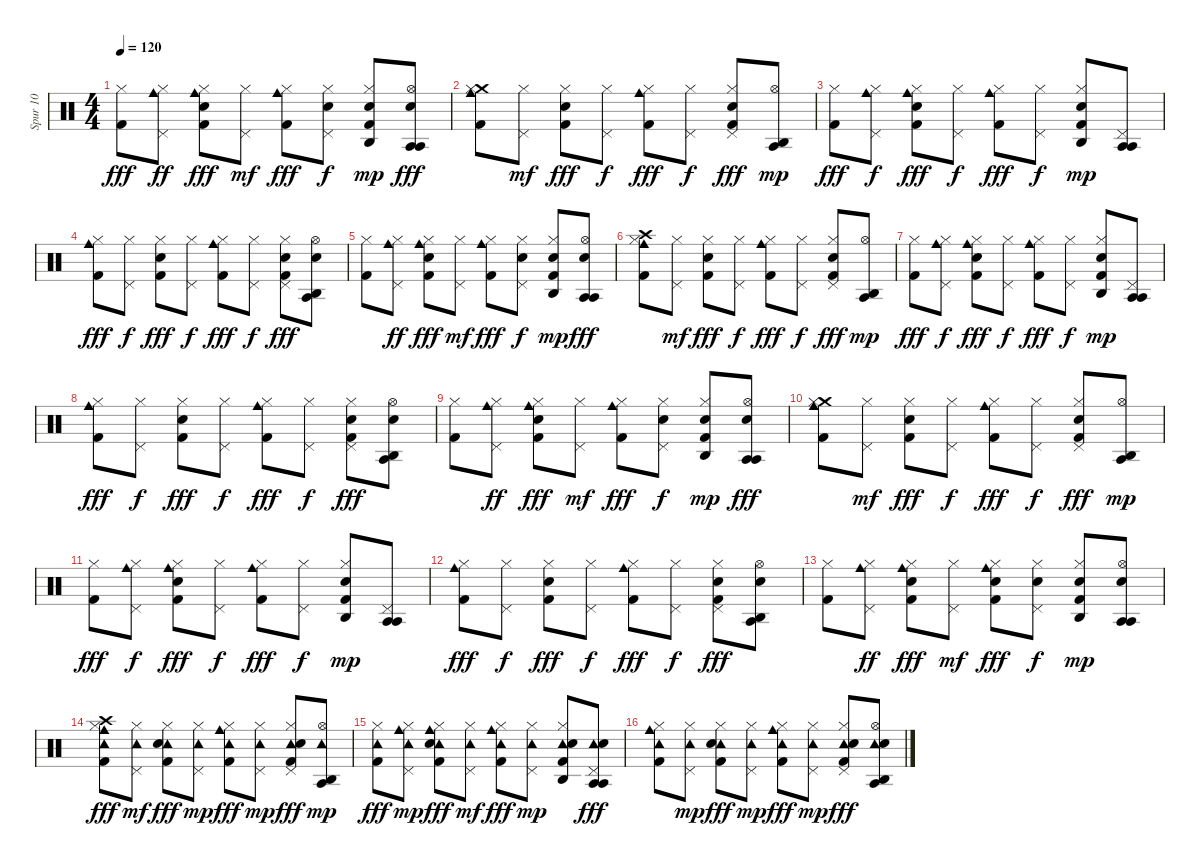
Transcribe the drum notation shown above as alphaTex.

\track ("Spur 10" "Spur 10") {instrument percussion}
\staff {score}
\articulation defaults
\ts (4 4)
\tempo 120
\clef neutral
\ks c
("Kick (hit) 2" "Hi-Hat (closed)").8{dy fff} ("Cowbell medium (hit)" "Hi-Hat (closed)" "Pedal Hi-Hat (hit)").8{dy ff} ("Electric Snare (hit)" "Kick (hit) 2" "Hi-Hat (closed)" "Cowbell medium (hit)").8{dy fff} ("Hi-Hat (closed)" "Pedal Hi-Hat (hit)").8{dy mf} ("Cowbell medium (hit)" "Hi-Hat (closed)" "Kick (hit) 2").8{dy fff} ("Hi-Hat (closed)" "Pedal Hi-Hat (hit)" "Electric Snare (hit)").8{dy f} ("Hi-Hat (closed)" "Kick (hit) 2" "Electric Snare (hit)" "Agogo high (hit)").8{dy mp} ("Agogo tow (hit)" "Hi-Hat (open)" "Agogo tow (hit)" "Electric Snare (hit)").8{dy fff} |
("Cowbell medium (hit)" "Crash medium (hit)" "Hi-Hat (closed)" "Kick (hit) 2").8 ("Hi-Hat (closed)" "Pedal Hi-Hat (hit)").8{dy mf} ("Electric Snare (hit)" "Kick (hit) 2" "Hi-Hat (closed)").8{dy fff} ("Hi-Hat (closed)" "Pedal Hi-Hat (hit)").8{dy f} ("Cowbell medium (hit)" "Kick (hit) 2" "Hi-Hat (closed)").8{dy fff} ("Hi-Hat (closed)" "Pedal Hi-Hat (hit)").8{dy f} ("Kick (hit) 2" "Electric Snare (hit)" "Hi-Hat (closed)" "Pedal Hi-Hat (hit)").8{dy fff} ("Agogo high (hit)" "Hi-Hat (open)" "Agogo tow (hit)").8{dy mp} |
("Kick (hit) 2" "Hi-Hat (closed)").8{dy fff} ("Cowbell medium (hit)" "Hi-Hat (closed)" "Pedal Hi-Hat (hit)").8{dy f} ("Hi-Hat (closed)" "Kick (hit) 2" "Electric Snare (hit)" "Cowbell medium (hit)").8{dy fff} ("Hi-Hat (closed)" "Pedal Hi-Hat (hit)").8{dy f} ("Cowbell medium (hit)" "Kick (hit) 2" "Hi-Hat (closed)").8{dy fff} ("Hi-Hat (closed)" "Pedal Hi-Hat (hit)").8{dy f} ("Electric Snare (hit)" "Kick (hit) 2" "Hi-Hat (closed)" "Agogo high (hit)").8{dy mp} ("Agogo tow (hit)" "Pedal Hi-Hat (hit)" "Agogo tow (hit)").8 |
("Cowbell medium (hit)" "Kick (hit) 2" "Hi-Hat (closed)").8{dy fff} ("Hi-Hat (closed)" "Pedal Hi-Hat (hit)").8{dy f} ("Electric Snare (hit)" "Kick (hit) 2" "Hi-Hat (closed)").8{dy fff} ("Hi-Hat (closed)" "Pedal Hi-Hat (hit)").8{dy f} ("Cowbell medium (hit)" "Hi-Hat (closed)" "Kick (hit) 2").8{dy fff} ("Hi-Hat (closed)" "Pedal Hi-Hat (hit)").8{dy f} ("Kick (hit) 2" "Electric Snare (hit)" "Hi-Hat (closed)" "Pedal Hi-Hat (hit)").8{dy fff} ("Agogo high (hit)" "Hi-Hat (open)" "Agogo tow (hit)" "Electric Snare (hit)").8 |
("Kick (hit) 2" "Hi-Hat (closed)").8 ("Cowbell medium (hit)" "Hi-Hat (closed)" "Pedal Hi-Hat (hit)").8{dy ff} ("Electric Snare (hit)" "Kick (hit) 2" "Hi-Hat (closed)" "Cowbell medium (hit)").8{dy fff} ("Hi-Hat (closed)" "Pedal Hi-Hat (hit)").8{dy mf} ("Cowbell medium (hit)" "Hi-Hat (closed)" "Kick (hit) 2").8{dy fff} ("Hi-Hat (closed)" "Pedal Hi-Hat (hit)" "Electric Snare (hit)").8{dy f} ("Hi-Hat (closed)" "Kick (hit) 2" "Electric Snare (hit)" "Agogo high (hit)").8{dy mp} ("Agogo tow (hit)" "Hi-Hat (open)" "Agogo tow (hit)" "Electric Snare (hit)").8{dy fff} |
("Cowbell medium (hit)" "Crash high (hit)" "Hi-Hat (closed)" "Kick (hit) 2").8 ("Hi-Hat (closed)" "Pedal Hi-Hat (hit)").8{dy mf} ("Electric Snare (hit)" "Kick (hit) 2" "Hi-Hat (closed)").8{dy fff} ("Hi-Hat (closed)" "Pedal Hi-Hat (hit)").8{dy f} ("Cowbell medium (hit)" "Kick (hit) 2" "Hi-Hat (closed)").8{dy fff} ("Hi-Hat (closed)" "Pedal Hi-Hat (hit)").8{dy f} ("Kick (hit) 2" "Electric Snare (hit)" "Hi-Hat (closed)" "Pedal Hi-Hat (hit)").8{dy fff} ("Agogo high (hit)" "Hi-Hat (open)" "Agogo tow (hit)").8{dy mp} |
("Kick (hit) 2" "Hi-Hat (closed)").8{dy fff} ("Cowbell medium (hit)" "Hi-Hat (closed)" "Pedal Hi-Hat (hit)").8{dy f} ("Hi-Hat (closed)" "Kick (hit) 2" "Electric Snare (hit)" "Cowbell medium (hit)").8{dy fff} ("Hi-Hat (closed)" "Pedal Hi-Hat (hit)").8{dy f} ("Cowbell medium (hit)" "Kick (hit) 2" "Hi-Hat (closed)").8{dy fff} ("Hi-Hat (closed)" "Pedal Hi-Hat (hit)").8{dy f} ("Electric Snare (hit)" "Kick (hit) 2" "Hi-Hat (closed)" "Agogo high (hit)").8{dy mp} ("Agogo tow (hit)" "Pedal Hi-Hat (hit)" "Agogo tow (hit)").8 |
("Cowbell medium (hit)" "Kick (hit) 2" "Hi-Hat (closed)").8{dy fff} ("Hi-Hat (closed)" "Pedal Hi-Hat (hit)").8{dy f} ("Electric Snare (hit)" "Kick (hit) 2" "Hi-Hat (closed)").8{dy fff} ("Hi-Hat (closed)" "Pedal Hi-Hat (hit)").8{dy f} ("Cowbell medium (hit)" "Hi-Hat (closed)" "Kick (hit) 2").8{dy fff} ("Hi-Hat (closed)" "Pedal Hi-Hat (hit)").8{dy f} ("Kick (hit) 2" "Electric Snare (hit)" "Hi-Hat (closed)" "Pedal Hi-Hat (hit)").8{dy fff} ("Agogo high (hit)" "Hi-Hat (open)" "Agogo tow (hit)" "Electric Snare (hit)").8 |
("Kick (hit) 2" "Hi-Hat (closed)").8 ("Cowbell medium (hit)" "Hi-Hat (closed)" "Pedal Hi-Hat (hit)").8{dy ff} ("Electric Snare (hit)" "Kick (hit) 2" "Hi-Hat (closed)" "Cowbell medium (hit)").8{dy fff} ("Hi-Hat (closed)" "Pedal Hi-Hat (hit)").8{dy mf} ("Cowbell medium (hit)" "Hi-Hat (closed)" "Kick (hit) 2").8{dy fff} ("Hi-Hat (closed)" "Pedal Hi-Hat (hit)" "Electric Snare (hit)").8{dy f} ("Hi-Hat (closed)" "Kick (hit) 2" "Electric Snare (hit)" "Agogo high (hit)").8{dy mp} ("Agogo tow (hit)" "Hi-Hat (open)" "Agogo tow (hit)" "Electric Snare (hit)").8{dy fff} |
("Cowbell medium (hit)" "Crash medium (hit)" "Hi-Hat (closed)" "Kick (hit) 2").8 ("Hi-Hat (closed)" "Pedal Hi-Hat (hit)").8{dy mf} ("Electric Snare (hit)" "Kick (hit) 2" "Hi-Hat (closed)").8{dy fff} ("Hi-Hat (closed)" "Pedal Hi-Hat (hit)").8{dy f} ("Cowbell medium (hit)" "Kick (hit) 2" "Hi-Hat (closed)").8{dy fff} ("Hi-Hat (closed)" "Pedal Hi-Hat (hit)").8{dy f} ("Kick (hit) 2" "Electric Snare (hit)" "Hi-Hat (closed)" "Pedal Hi-Hat (hit)").8{dy fff} ("Agogo high (hit)" "Hi-Hat (open)" "Agogo tow (hit)").8{dy mp} |
("Kick (hit) 2" "Hi-Hat (closed)").8{dy fff} ("Cowbell medium (hit)" "Hi-Hat (closed)" "Pedal Hi-Hat (hit)").8{dy f} ("Hi-Hat (closed)" "Kick (hit) 2" "Electric Snare (hit)" "Cowbell medium (hit)").8{dy fff} ("Hi-Hat (closed)" "Pedal Hi-Hat (hit)").8{dy f} ("Cowbell medium (hit)" "Kick (hit) 2" "Hi-Hat (closed)").8{dy fff} ("Hi-Hat (closed)" "Pedal Hi-Hat (hit)").8{dy f} ("Electric Snare (hit)" "Kick (hit) 2" "Hi-Hat (closed)" "Agogo high (hit)").8{dy mp} ("Agogo tow (hit)" "Pedal Hi-Hat (hit)" "Agogo tow (hit)").8 |
("Cowbell medium (hit)" "Kick (hit) 2" "Hi-Hat (closed)").8{dy fff} ("Hi-Hat (closed)" "Pedal Hi-Hat (hit)").8{dy f} ("Electric Snare (hit)" "Kick (hit) 2" "Hi-Hat (closed)").8{dy fff} ("Hi-Hat (closed)" "Pedal Hi-Hat (hit)").8{dy f} ("Cowbell medium (hit)" "Hi-Hat (closed)" "Kick (hit) 2").8{dy fff} ("Hi-Hat (closed)" "Pedal Hi-Hat (hit)").8{dy f} ("Kick (hit) 2" "Electric Snare (hit)" "Hi-Hat (closed)" "Pedal Hi-Hat (hit)").8{dy fff} ("Agogo high (hit)" "Hi-Hat (open)" "Agogo tow (hit)" "Electric Snare (hit)").8 |
("Kick (hit) 2" "Hi-Hat (closed)").8 ("Cowbell medium (hit)" "Hi-Hat (closed)" "Pedal Hi-Hat (hit)").8{dy ff} ("Electric Snare (hit)" "Kick (hit) 2" "Hi-Hat (closed)" "Cowbell medium (hit)").8{dy fff} ("Hi-Hat (closed)" "Pedal Hi-Hat (hit)").8{dy mf} ("Cowbell medium (hit)" "Electric Snare (hit)" "Hi-Hat (closed)" "Kick (hit) 2").8{dy fff} ("Hi-Hat (closed)" "Pedal Hi-Hat (hit)" "Electric Snare (hit)").8{dy f} ("Hi-Hat (closed)" "Kick (hit) 2" "Electric Snare (hit)" "Agogo high (hit)").8{dy mp} ("Agogo tow (hit)" "Electric Snare (hit)" "Hi-Hat (open)" "Agogo tow (hit)").8 |
("Tambourine (hit)" "Cowbell medium (hit)" "Crash high (hit)" "Hi-Hat (closed)" "Kick (hit) 2").8{dy fff} ("Tambourine (hit)" "Hi-Hat (closed)" "Pedal Hi-Hat (hit)").8{dy mf} ("Tambourine (hit)" "Electric Snare (hit)" "Kick (hit) 2" "Hi-Hat (closed)").8{dy fff} ("Tambourine (hit)" "Hi-Hat (closed)" "Pedal Hi-Hat (hit)").8{dy mp} ("Tambourine (hit)" "Cowbell medium (hit)" "Kick (hit) 2" "Hi-Hat (closed)").8{dy fff} ("Tambourine (hit)" "Hi-Hat (closed)" "Pedal Hi-Hat (hit)").8{dy mp} ("Tambourine (hit)" "Kick (hit) 2" "Electric Snare (hit)" "Hi-Hat (closed)" "Pedal Hi-Hat (hit)").8{dy fff} ("Agogo high (hit)" "Tambourine (hit)" "Hi-Hat (open)" "Agogo tow (hit)").8{dy mp} |
("Tambourine (hit)" "Kick (hit) 2" "Hi-Hat (closed)").8{dy fff} ("Cowbell medium (hit)" "Tambourine (hit)" "Hi-Hat (closed)" "Pedal Hi-Hat (hit)").8{dy mp} ("Tambourine (hit)" "Hi-Hat (closed)" "Kick (hit) 2" "Electric Snare (hit)" "Cowbell medium (hit)").8{dy fff} ("Tambourine (hit)" "Hi-Hat (closed)" "Pedal Hi-Hat (hit)").8{dy mf} ("Cowbell medium (hit)" "Tambourine (hit)" "Kick (hit) 2" "Hi-Hat (closed)").8{dy fff} ("Tambourine (hit)" "Hi-Hat (closed)" "Pedal Hi-Hat (hit)").8{dy mp} ("Tambourine (hit)" "Electric Snare (hit)" "Kick (hit) 2" "Hi-Hat (closed)" "Agogo high (hit)").8 ("Agogo tow (hit)" "Tambourine (hit)" "Pedal Hi-Hat (hit)" "Agogo tow (hit)" "Electric Snare (hit)").8{dy fff} |
("Cowbell medium (hit)" "Tambourine (hit)" "Kick (hit) 2" "Hi-Hat (closed)").8 ("Tambourine (hit)" "Hi-Hat (closed)" "Pedal Hi-Hat (hit)").8{dy mp} ("Tambourine (hit)" "Electric Snare (hit)" "Kick (hit) 2" "Hi-Hat (closed)").8{dy fff} ("Tambourine (hit)" "Hi-Hat (closed)" "Pedal Hi-Hat (hit)").8{dy mp} ("Cowbell medium (hit)" "Tambourine (hit)" "Hi-Hat (closed)" "Kick (hit) 2").8{dy fff} ("Tambourine (hit)" "Hi-Hat (closed)" "Pedal Hi-Hat (hit)").8{dy mp} ("Tambourine (hit)" "Kick (hit) 2" "Electric Snare (hit)" "Hi-Hat (closed)" "Pedal Hi-Hat (hit)").8{dy fff} ("Agogo high (hit)" "Tambourine (hit)" "Hi-Hat (open)" "Agogo tow (hit)" "Electric Snare (hit)").8
